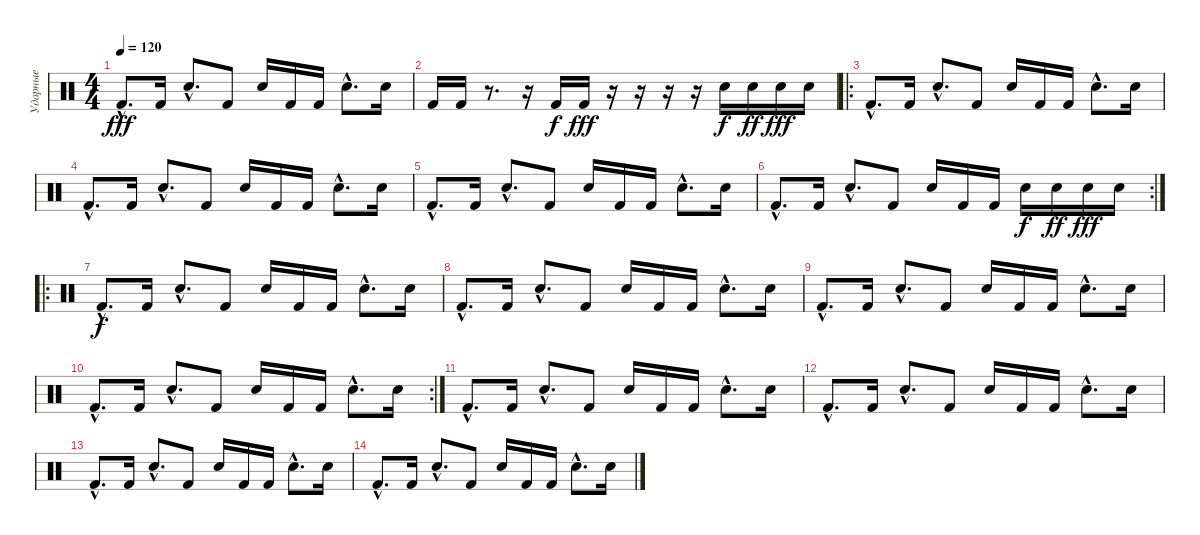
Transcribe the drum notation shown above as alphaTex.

\track ("Ударные" "Ударные") {instrument percussion}
\staff {score}
\articulation defaults
\ts (4 4)
\tempo 120
\clef neutral
\ks c "Kick (hit) 2"{hac}.8{d dy fff volume 16} "Kick (hit) 2".16 "Electric Snare (hit)"{hac}.8{d} "Kick (hit) 2".8 "Electric Snare (hit)".16 "Kick (hit) 2".16 "Kick (hit) 2".16 "Electric Snare (hit)"{hac}.8{d} "Electric Snare (hit)".16
|
"Kick (hit) 2".16{volume 16} "Kick (hit) 2".16 r.8{d} r.16 "Kick (hit) 2".16{dy f} "Kick (hit) 2".16{dy fff} r.16 r.16 r.16 r.16 "Electric Snare (hit)".16{dy f} "Electric Snare (hit)".16{dy ff} "Electric Snare (hit)".16{dy fff} "Electric Snare (hit)".16 |
\ro "Kick (hit) 2"{hac}.8{d volume 16} "Kick (hit) 2".16 "Electric Snare (hit)"{hac}.8{d} "Kick (hit) 2".8 "Electric Snare (hit)".16 "Kick (hit) 2".16 "Kick (hit) 2".16 "Electric Snare (hit)"{hac}.8{d} "Electric Snare (hit)".16
|
"Kick (hit) 2"{hac}.8{d volume 16} "Kick (hit) 2".16 "Electric Snare (hit)"{hac}.8{d} "Kick (hit) 2".8 "Electric Snare (hit)".16 "Kick (hit) 2".16 "Kick (hit) 2".16 "Electric Snare (hit)"{hac}.8{d} "Electric Snare (hit)".16 |
"Kick (hit) 2"{hac}.8{d volume 16} "Kick (hit) 2".16 "Electric Snare (hit)"{hac}.8{d} "Kick (hit) 2".8 "Electric Snare (hit)".16 "Kick (hit) 2".16 "Kick (hit) 2".16 "Electric Snare (hit)"{hac}.8{d} "Electric Snare (hit)".16 |
\rc 2 "Kick (hit) 2"{hac}.8{d volume 16} "Kick (hit) 2".16 "Electric Snare (hit)"{hac}.8{d} "Kick (hit) 2".8 "Electric Snare (hit)".16 "Kick (hit) 2".16 "Kick (hit) 2".16 "Electric Snare (hit)".16{dy f} "Electric Snare (hit)".16{dy ff} "Electric Snare (hit)".16{dy fff} "Electric Snare (hit)".16
|
\ro "Kick (hit) 2"{hac}.8{d dy f} "Kick (hit) 2".16 "Electric Snare (hit)"{hac}.8{d} "Kick (hit) 2".8 "Electric Snare (hit)".16 "Kick (hit) 2".16 "Kick (hit) 2".16 "Electric Snare (hit)"{hac}.8{d} "Electric Snare (hit)".16
|
"Kick (hit) 2"{hac}.8{d} "Kick (hit) 2".16 "Electric Snare (hit)"{hac}.8{d} "Kick (hit) 2".8 "Electric Snare (hit)".16 "Kick (hit) 2".16 "Kick (hit) 2".16 "Electric Snare (hit)"{hac}.8{d} "Electric Snare (hit)".16 |
"Kick (hit) 2"{hac}.8{d} "Kick (hit) 2".16 "Electric Snare (hit)"{hac}.8{d} "Kick (hit) 2".8 "Electric Snare (hit)".16 "Kick (hit) 2".16 "Kick (hit) 2".16 "Electric Snare (hit)"{hac}.8{d} "Electric Snare (hit)".16 |
\rc 2 "Kick (hit) 2"{hac}.8{d} "Kick (hit) 2".16 "Electric Snare (hit)"{hac}.8{d} "Kick (hit) 2".8 "Electric Snare (hit)".16 "Kick (hit) 2".16 "Kick (hit) 2".16 "Electric Snare (hit)"{hac}.8{d} "Electric Snare (hit)".16
|
"Kick (hit) 2"{hac}.8{d} "Kick (hit) 2".16 "Electric Snare (hit)"{hac}.8{d} "Kick (hit) 2".8 "Electric Snare (hit)".16 "Kick (hit) 2".16 "Kick (hit) 2".16 "Electric Snare (hit)"{hac}.8{d} "Electric Snare (hit)".16 |
"Kick (hit) 2"{hac}.8{d} "Kick (hit) 2".16 "Electric Snare (hit)"{hac}.8{d} "Kick (hit) 2".8 "Electric Snare (hit)".16 "Kick (hit) 2".16 "Kick (hit) 2".16 "Electric Snare (hit)"{hac}.8{d} "Electric Snare (hit)".16 |
"Kick (hit) 2"{hac}.8{d} "Kick (hit) 2".16 "Electric Snare (hit)"{hac}.8{d} "Kick (hit) 2".8 "Electric Snare (hit)".16 "Kick (hit) 2".16 "Kick (hit) 2".16 "Electric Snare (hit)"{hac}.8{d} "Electric Snare (hit)".16 |
"Kick (hit) 2"{hac}.8{d} "Kick (hit) 2".16 "Electric Snare (hit)"{hac}.8{d} "Kick (hit) 2".8 "Electric Snare (hit)".16 "Kick (hit) 2".16 "Kick (hit) 2".16 "Electric Snare (hit)"{hac}.8{d} "Electric Snare (hit)".16
